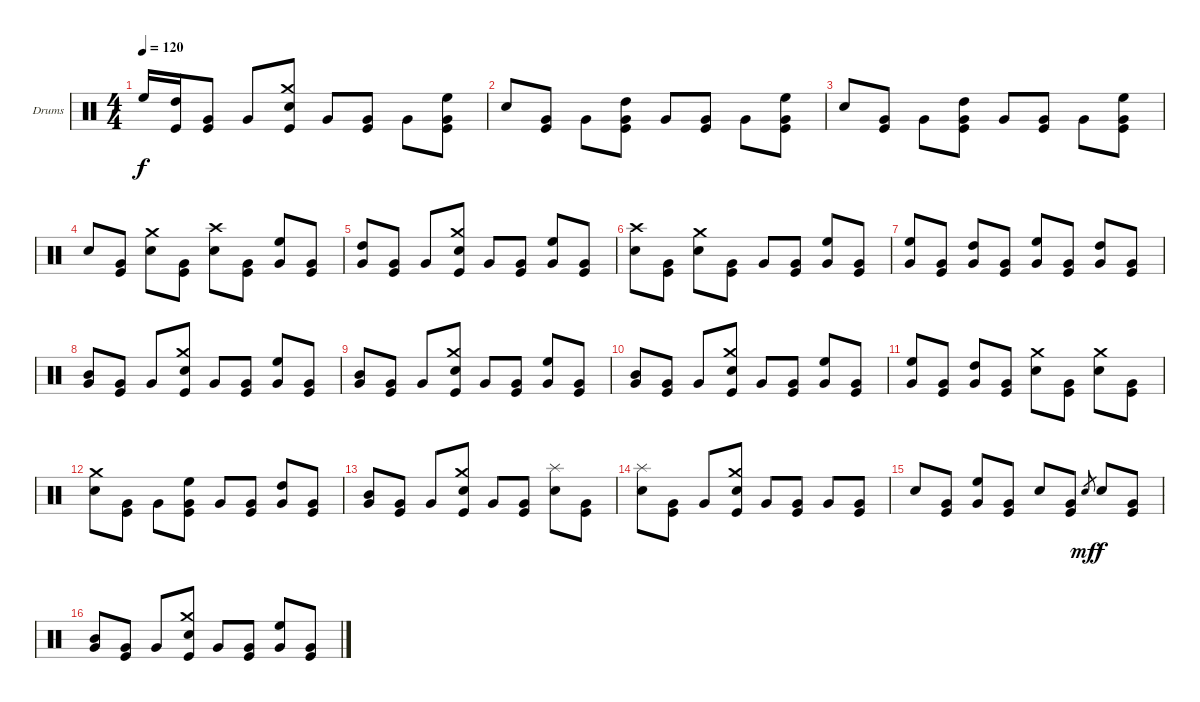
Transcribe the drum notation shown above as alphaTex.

\bracketExtendMode groupsimilarinstruments
\firstSystemTrackNameOrientation horizontal
\otherSystemsTrackNameOrientation horizontal
\track ("Drumkit" "Drums") {instrument percussion}
\staff {score}
\articulation defaults
\ts (4 4)
\tempo 120
\clef neutral
\ks c "High Floor Tom (hit)".16{dy f}
("High Tom (hit)" "Kick (hit)").16 ("Very Low Tom (hit)" "Kick (hit)").8 "Very Low Tom (hit)".8 ("Crash medium (hit)" "Snare (hit) 2" "Kick (hit)").8 "Very Low Tom (hit)".8 ("Very Low Tom (hit)" "Kick (hit)").8 "Very Low Tom (hit)".8 ("High Floor Tom (hit)" "Very Low Tom (hit)" "Kick (hit)").8 |
"Snare (hit) 2".8 ("Very Low Tom (hit)" "Kick (hit)").8 "Very Low Tom (hit)".8 ("High Tom (hit)" "Very Low Tom (hit)" "Kick (hit)").8 "Very Low Tom (hit)".8 ("Very Low Tom (hit)" "Kick (hit)").8 "Very Low Tom (hit)".8 ("High Floor Tom (hit)" "Very Low Tom (hit)" "Kick (hit)").8 |
"Snare (hit) 2".8 ("Very Low Tom (hit)" "Kick (hit)").8 "Very Low Tom (hit)".8 ("High Tom (hit)" "Very Low Tom (hit)" "Kick (hit)").8 "Very Low Tom (hit)".8 ("Very Low Tom (hit)" "Kick (hit)").8 "Very Low Tom (hit)".8 ("High Floor Tom (hit)" "Very Low Tom (hit)" "Kick (hit)").8 |
"Snare (hit) 2".8 ("Very Low Tom (hit)" "Kick (hit)").8 ("Crash medium (hit)" "Snare (hit) 2").8 ("Very Low Tom (hit)" "Kick (hit)").8 ("Crash high (hit)" "Snare (hit) 2").8 ("Very Low Tom (hit)" "Kick (hit)").8 ("High Floor Tom (hit)" "Very Low Tom (hit)").8 ("Very Low Tom (hit)" "Kick (hit)").8 |
("High Tom (hit)" "Very Low Tom (hit)").8 ("Very Low Tom (hit)" "Kick (hit)").8 "Very Low Tom (hit)".8 ("Crash medium (hit)" "Snare (hit) 2" "Kick (hit)").8 "Very Low Tom (hit)".8 ("Very Low Tom (hit)" "Kick (hit)").8 ("High Floor Tom (hit)" "Very Low Tom (hit)").8 ("Very Low Tom (hit)" "Kick (hit)").8 |
("Crash high (hit)" "Snare (hit) 2").8 ("Very Low Tom (hit)" "Kick (hit)").8 ("Crash medium (hit)" "Snare (hit) 2").8 ("Very Low Tom (hit)" "Kick (hit)").8 "Very Low Tom (hit)".8 ("Very Low Tom (hit)" "Kick (hit)").8 ("High Floor Tom (hit)" "Very Low Tom (hit)").8 ("Very Low Tom (hit)" "Kick (hit)").8 |
("High Floor Tom (hit)" "Very Low Tom (hit)").8 ("Very Low Tom (hit)" "Kick (hit)").8 ("High Tom (hit)" "Very Low Tom (hit)").8 ("Very Low Tom (hit)" "Kick (hit)").8 ("High Floor Tom (hit)" "Very Low Tom (hit)").8 ("Very Low Tom (hit)" "Kick (hit)").8 ("High Tom (hit)" "Very Low Tom (hit)").8 ("Very Low Tom (hit)" "Kick (hit)").8 |
("Mid Tom (hit)" "Very Low Tom (hit)").8 ("Very Low Tom (hit)" "Kick (hit)").8 "Very Low Tom (hit)".8 ("Crash medium (hit)" "Snare (hit) 2" "Kick (hit)").8 "Very Low Tom (hit)".8 ("Very Low Tom (hit)" "Kick (hit)").8 ("High Floor Tom (hit)" "Very Low Tom (hit)").8 ("Very Low Tom (hit)" "Kick (hit)").8 |
("Mid Tom (hit)" "Very Low Tom (hit)").8 ("Very Low Tom (hit)" "Kick (hit)").8 "Very Low Tom (hit)".8 ("Crash medium (hit)" "Snare (hit) 2" "Kick (hit)").8 "Very Low Tom (hit)".8 ("Very Low Tom (hit)" "Kick (hit)").8 ("High Floor Tom (hit)" "Very Low Tom (hit)").8 ("Very Low Tom (hit)" "Kick (hit)").8 |
("Mid Tom (hit)" "Very Low Tom (hit)").8 ("Very Low Tom (hit)" "Kick (hit)").8 "Very Low Tom (hit)".8 ("Crash medium (hit)" "Snare (hit) 2" "Kick (hit)").8 "Very Low Tom (hit)".8 ("Very Low Tom (hit)" "Kick (hit)").8 ("High Floor Tom (hit)" "Very Low Tom (hit)").8 ("Very Low Tom (hit)" "Kick (hit)").8 |
("High Floor Tom (hit)" "Very Low Tom (hit)").8 ("Very Low Tom (hit)" "Kick (hit)").8 ("High Tom (hit)" "Very Low Tom (hit)").8 ("Very Low Tom (hit)" "Kick (hit)").8 ("Crash medium (hit)" "Snare (hit) 2").8 ("Very Low Tom (hit)" "Kick (hit)").8 ("Crash medium (hit)" "Snare (hit) 2").8 ("Very Low Tom (hit)" "Kick (hit)").8 |
("Crash medium (hit)" "Snare (hit) 2").8 ("Very Low Tom (hit)" "Kick (hit)").8 "Very Low Tom (hit)".8 ("High Floor Tom (hit)" "Very Low Tom (hit)" "Kick (hit)").8 "Very Low Tom (hit)".8 ("Very Low Tom (hit)" "Kick (hit)").8 ("High Tom (hit)" "Very Low Tom (hit)").8 ("Very Low Tom (hit)" "Kick (hit)").8 |
("Mid Tom (hit)" "Very Low Tom (hit)").8 ("Very Low Tom (hit)" "Kick (hit)").8 "Very Low Tom (hit)".8 ("Crash medium (hit)" "Snare (hit) 2" "Kick (hit)").8 "Very Low Tom (hit)".8 ("Very Low Tom (hit)" "Kick (hit)").8 ("Splash (hit)" "Snare (hit) 2").8 ("Very Low Tom (hit)" "Kick (hit)").8 |
("Splash (hit)" "Snare (hit) 2").8 ("Very Low Tom (hit)" "Kick (hit)").8 "Very Low Tom (hit)".8 ("Crash medium (hit)" "Snare (hit) 2" "Kick (hit)").8 "Very Low Tom (hit)".8 ("Very Low Tom (hit)" "Kick (hit)").8 "Very Low Tom (hit)".8 ("Very Low Tom (hit)" "Kick (hit)").8 |
"Snare (hit) 2".8 ("Very Low Tom (hit)" "Kick (hit)").8 ("High Floor Tom (hit)" "Very Low Tom (hit)").8 ("Very Low Tom (hit)" "Kick (hit)").8 "Snare (hit) 2".8 ("Very Low Tom (hit)" "Kick (hit)").8 "Snare (hit) 2".8{gr dy mf} "Snare (hit) 2".8{dy f} ("Very Low Tom (hit)" "Kick (hit)").8 |
("Mid Tom (hit)" "Very Low Tom (hit)").8 ("Very Low Tom (hit)" "Kick (hit)").8 "Very Low Tom (hit)".8 ("Crash medium (hit)" "Snare (hit) 2" "Kick (hit)").8 "Very Low Tom (hit)".8 ("Very Low Tom (hit)" "Kick (hit)").8 ("High Floor Tom (hit)" "Very Low Tom (hit)").8 ("Very Low Tom (hit)" "Kick (hit)").8
